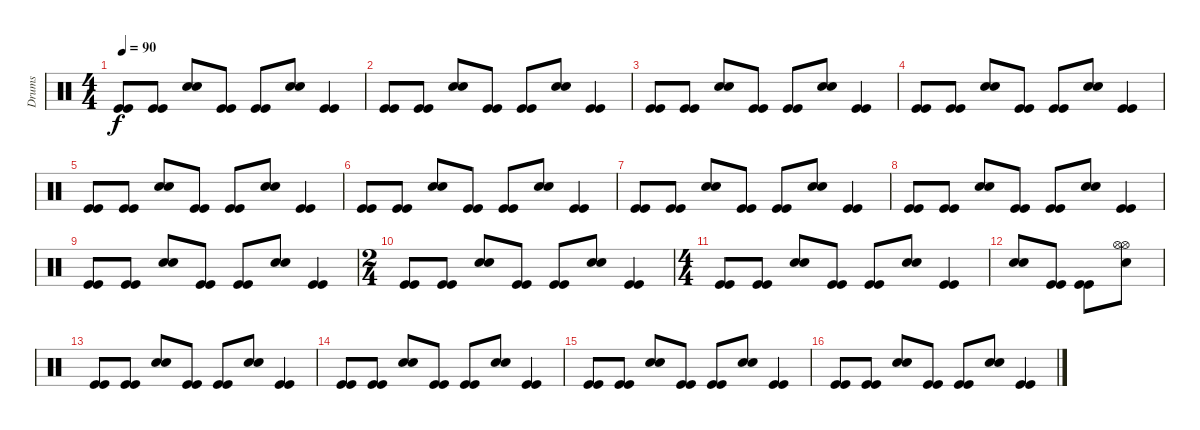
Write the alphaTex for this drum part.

\track ("Drums" "Drums") {instrument percussion}
\staff {score}
\articulation defaults
\ts (4 4)
\tempo 90
\clef neutral
\ks c
("Kick (hit)" "Kick (hit)").8{dy f} ("Kick (hit)" "Kick (hit)").8 ("Electric Snare (hit)" "Electric Snare (hit)").8 ("Kick (hit)" "Kick (hit)").8 ("Kick (hit)" "Kick (hit)").8 ("Electric Snare (hit)" "Electric Snare (hit)").8 ("Kick (hit)" "Kick (hit)").4 |
("Kick (hit)" "Kick (hit)").8 ("Kick (hit)" "Kick (hit)").8 ("Electric Snare (hit)" "Electric Snare (hit)").8 ("Kick (hit)" "Kick (hit)").8 ("Kick (hit)" "Kick (hit)").8 ("Electric Snare (hit)" "Electric Snare (hit)").8 ("Kick (hit)" "Kick (hit)").4 |
("Kick (hit)" "Kick (hit)").8 ("Kick (hit)" "Kick (hit)").8 ("Electric Snare (hit)" "Electric Snare (hit)").8 ("Kick (hit)" "Kick (hit)").8 ("Kick (hit)" "Kick (hit)").8 ("Electric Snare (hit)" "Electric Snare (hit)").8 ("Kick (hit)" "Kick (hit)").4 |
("Kick (hit)" "Kick (hit)").8 ("Kick (hit)" "Kick (hit)").8 ("Electric Snare (hit)" "Electric Snare (hit)").8 ("Kick (hit)" "Kick (hit)").8 ("Kick (hit)" "Kick (hit)").8 ("Electric Snare (hit)" "Electric Snare (hit)").8 ("Kick (hit)" "Kick (hit)").4 |
("Kick (hit)" "Kick (hit)").8 ("Kick (hit)" "Kick (hit)").8 ("Electric Snare (hit)" "Electric Snare (hit)").8 ("Kick (hit)" "Kick (hit)").8 ("Kick (hit)" "Kick (hit)").8 ("Electric Snare (hit)" "Electric Snare (hit)").8 ("Kick (hit)" "Kick (hit)").4 |
("Kick (hit)" "Kick (hit)").8 ("Kick (hit)" "Kick (hit)").8 ("Electric Snare (hit)" "Electric Snare (hit)").8 ("Kick (hit)" "Kick (hit)").8 ("Kick (hit)" "Kick (hit)").8 ("Electric Snare (hit)" "Electric Snare (hit)").8 ("Kick (hit)" "Kick (hit)").4 |
("Kick (hit)" "Kick (hit)").8 ("Kick (hit)" "Kick (hit)").8 ("Electric Snare (hit)" "Electric Snare (hit)").8 ("Kick (hit)" "Kick (hit)").8 ("Kick (hit)" "Kick (hit)").8 ("Electric Snare (hit)" "Electric Snare (hit)").8 ("Kick (hit)" "Kick (hit)").4 |
("Kick (hit)" "Kick (hit)").8 ("Kick (hit)" "Kick (hit)").8 ("Electric Snare (hit)" "Electric Snare (hit)").8 ("Kick (hit)" "Kick (hit)").8 ("Kick (hit)" "Kick (hit)").8 ("Electric Snare (hit)" "Electric Snare (hit)").8 ("Kick (hit)" "Kick (hit)").4 |
("Kick (hit)" "Kick (hit)").8 ("Kick (hit)" "Kick (hit)").8 ("Electric Snare (hit)" "Electric Snare (hit)").8 ("Kick (hit)" "Kick (hit)").8 ("Kick (hit)" "Kick (hit)").8 ("Electric Snare (hit)" "Electric Snare (hit)").8 ("Kick (hit)" "Kick (hit)").4 |
\ts (2 4)
("Kick (hit)" "Kick (hit)").8 ("Kick (hit)" "Kick (hit)").8 ("Electric Snare (hit)" "Electric Snare (hit)").8 ("Kick (hit)" "Kick (hit)").8 ("Kick (hit)" "Kick (hit)").8 ("Electric Snare (hit)" "Electric Snare (hit)").8 ("Kick (hit)" "Kick (hit)").4 |
\ts (4 4)
("Kick (hit)" "Kick (hit)").8 ("Kick (hit)" "Kick (hit)").8 ("Electric Snare (hit)" "Electric Snare (hit)").8 ("Kick (hit)" "Kick (hit)").8 ("Kick (hit)" "Kick (hit)").8 ("Electric Snare (hit)" "Electric Snare (hit)").8 ("Kick (hit)" "Kick (hit)").4 |
("Electric Snare (hit)" "Electric Snare (hit)").8 ("Kick (hit)" "Kick (hit)").8 ("Kick (hit)" "Kick (hit)").8 ("Hi-Hat (open)" "Electric Snare (hit)" "Hi-Hat (open)").8 |
("Kick (hit)" "Kick (hit)").8 ("Kick (hit)" "Kick (hit)").8 ("Electric Snare (hit)" "Electric Snare (hit)").8 ("Kick (hit)" "Kick (hit)").8 ("Kick (hit)" "Kick (hit)").8 ("Electric Snare (hit)" "Electric Snare (hit)").8 ("Kick (hit)" "Kick (hit)").4 |
("Kick (hit)" "Kick (hit)").8 ("Kick (hit)" "Kick (hit)").8 ("Electric Snare (hit)" "Electric Snare (hit)").8 ("Kick (hit)" "Kick (hit)").8 ("Kick (hit)" "Kick (hit)").8 ("Electric Snare (hit)" "Electric Snare (hit)").8 ("Kick (hit)" "Kick (hit)").4 |
("Kick (hit)" "Kick (hit)").8 ("Kick (hit)" "Kick (hit)").8 ("Electric Snare (hit)" "Electric Snare (hit)").8 ("Kick (hit)" "Kick (hit)").8 ("Kick (hit)" "Kick (hit)").8 ("Electric Snare (hit)" "Electric Snare (hit)").8 ("Kick (hit)" "Kick (hit)").4 |
("Kick (hit)" "Kick (hit)").8 ("Kick (hit)" "Kick (hit)").8 ("Electric Snare (hit)" "Electric Snare (hit)").8 ("Kick (hit)" "Kick (hit)").8 ("Kick (hit)" "Kick (hit)").8 ("Electric Snare (hit)" "Electric Snare (hit)").8 ("Kick (hit)" "Kick (hit)").4
